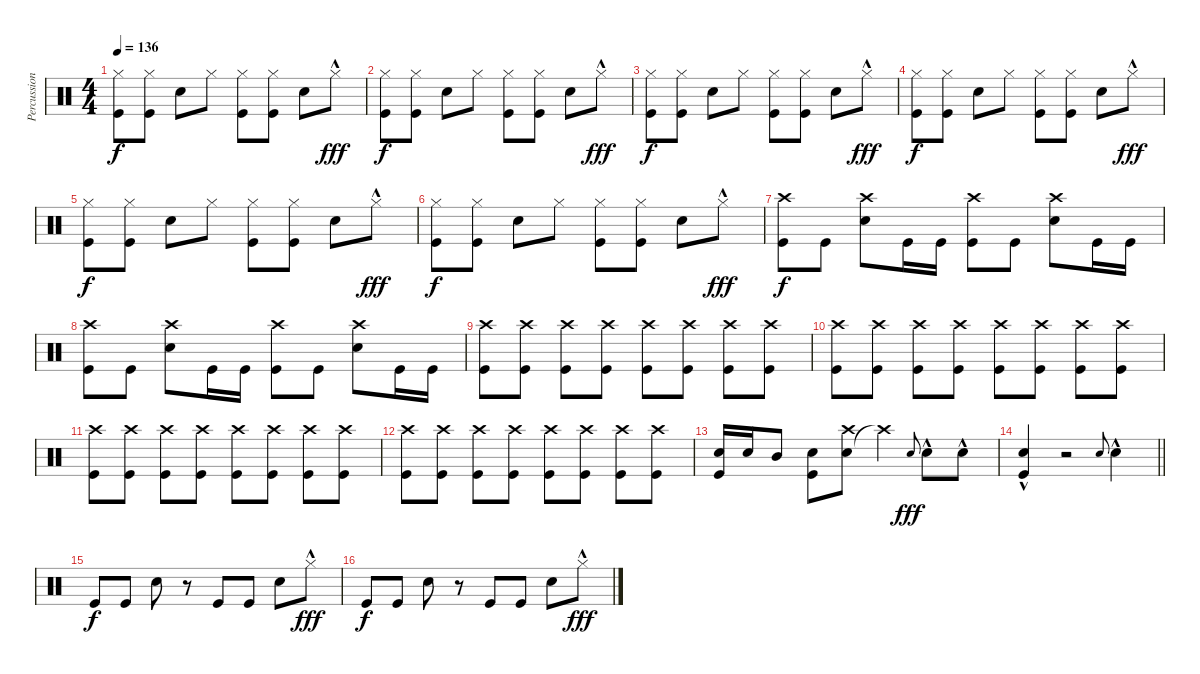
\track ("Percussions" "Percussion") {instrument percussion}
\staff {score}
\articulation defaults
\ts (4 4)
\tempo 136
\clef neutral
\ks c
("Kick (hit)" "Hi-Hat (closed)").8{dy f} ("Kick (hit)" "Hi-Hat (closed)").8 "Snare (hit) 2".8 "Hi-Hat (closed)".8 ("Kick (hit)" "Hi-Hat (closed)").8 ("Kick (hit)" "Hi-Hat (closed)").8 "Snare (hit) 2".8 "Hi-Hat (closed)"{hac}.8{dy fff} |
("Kick (hit)" "Hi-Hat (closed)").8{dy f} ("Kick (hit)" "Hi-Hat (closed)").8 "Snare (hit) 2".8 "Hi-Hat (closed)".8 ("Kick (hit)" "Hi-Hat (closed)").8 ("Kick (hit)" "Hi-Hat (closed)").8 "Snare (hit) 2".8 "Hi-Hat (closed)"{hac}.8{dy fff} |
("Kick (hit)" "Hi-Hat (closed)").8{dy f} ("Kick (hit)" "Hi-Hat (closed)").8 "Snare (hit) 2".8 "Hi-Hat (closed)".8 ("Kick (hit)" "Hi-Hat (closed)").8 ("Kick (hit)" "Hi-Hat (closed)").8 "Snare (hit) 2".8 "Hi-Hat (closed)"{hac}.8{dy fff} |
("Kick (hit)" "Hi-Hat (closed)").8{dy f} ("Kick (hit)" "Hi-Hat (closed)").8 "Snare (hit) 2".8 "Hi-Hat (closed)".8 ("Kick (hit)" "Hi-Hat (closed)").8 ("Kick (hit)" "Hi-Hat (closed)").8 "Snare (hit) 2".8 "Hi-Hat (closed)"{hac}.8{dy fff} |
("Kick (hit)" "Hi-Hat (closed)").8{dy f} ("Kick (hit)" "Hi-Hat (closed)").8 "Snare (hit) 2".8 "Hi-Hat (closed)".8 ("Kick (hit)" "Hi-Hat (closed)").8 ("Kick (hit)" "Hi-Hat (closed)").8 "Snare (hit) 2".8 "Hi-Hat (closed)"{hac}.8{dy fff} |
("Kick (hit)" "Hi-Hat (closed)").8{dy f} ("Kick (hit)" "Hi-Hat (closed)").8 "Snare (hit) 2".8 "Hi-Hat (closed)".8 ("Kick (hit)" "Hi-Hat (closed)").8 ("Kick (hit)" "Hi-Hat (closed)").8 "Snare (hit) 2".8 "Hi-Hat (closed)"{hac}.8{dy fff} |
("Crash high (hit)" "Kick (hit)").8{dy f} "Kick (hit)".8 ("Snare (hit) 2" "Crash high (hit)").8 "Kick (hit)".16 "Kick (hit)".16 ("Crash high (hit)" "Kick (hit)").8 "Kick (hit)".8 ("Snare (hit) 2" "Crash high (hit)").8 "Kick (hit)".16 "Kick (hit)".16 |
("Crash high (hit)" "Kick (hit)").8 "Kick (hit)".8 ("Snare (hit) 2" "Crash high (hit)").8 "Kick (hit)".16 "Kick (hit)".16 ("Crash high (hit)" "Kick (hit)").8 "Kick (hit)".8 ("Snare (hit) 2" "Crash high (hit)").8 "Kick (hit)".16 "Kick (hit)".16 |
("Kick (hit)" "Crash high (hit)").8 ("Kick (hit)" "Crash high (hit)").8 ("Kick (hit)" "Crash high (hit)").8 ("Kick (hit)" "Crash high (hit)").8 ("Kick (hit)" "Crash high (hit)").8 ("Kick (hit)" "Crash high (hit)").8 ("Kick (hit)" "Crash high (hit)").8 ("Kick (hit)" "Crash high (hit)").8 |
("Kick (hit)" "Crash high (hit)").8 ("Kick (hit)" "Crash high (hit)").8 ("Kick (hit)" "Crash high (hit)").8 ("Kick (hit)" "Crash high (hit)").8 ("Kick (hit)" "Crash high (hit)").8 ("Kick (hit)" "Crash high (hit)").8 ("Kick (hit)" "Crash high (hit)").8 ("Kick (hit)" "Crash high (hit)").8 |
("Kick (hit)" "Crash high (hit)").8 ("Kick (hit)" "Crash high (hit)").8 ("Kick (hit)" "Crash high (hit)").8 ("Kick (hit)" "Crash high (hit)").8 ("Kick (hit)" "Crash high (hit)").8 ("Kick (hit)" "Crash high (hit)").8 ("Kick (hit)" "Crash high (hit)").8 ("Kick (hit)" "Crash high (hit)").8 |
("Kick (hit)" "Crash high (hit)").8 ("Kick (hit)" "Crash high (hit)").8 ("Kick (hit)" "Crash high (hit)").8 ("Kick (hit)" "Crash high (hit)").8 ("Kick (hit)" "Crash high (hit)").8 ("Kick (hit)" "Crash high (hit)").8 ("Kick (hit)" "Crash high (hit)").8 ("Kick (hit)" "Crash high (hit)").8 |
("Snare (hit) 2" "Kick (hit)").16 "Snare (hit) 2".16 "Mid Tom (hit)".8 ("Snare (hit) 2" "Kick (hit)").8 ("Snare (hit) 2" "Crash high (hit)").8 "Crash high (hit)"{t}.4 "Snare (hit) 2".8{gr onbeat dy fff} "Snare (hit) 2"{hac}.8 "Snare (hit) 2"{hac}.8 |
\barLineRight lightlight
("Snare (hit) 2"{hac} "Kick (hit)").4 r.2 "Snare (hit) 2".8{gr onbeat} "Snare (hit) 2"{hac}.4 |
"Kick (hit)".8{dy f} "Kick (hit)".8 "Snare (hit) 2".8 r.8 "Kick (hit)".8 "Kick (hit)".8 "Snare (hit) 2".8 "Hi-Hat (closed)"{hac}.8{dy fff} |
"Kick (hit)".8{dy f} "Kick (hit)".8 "Snare (hit) 2".8 r.8 "Kick (hit)".8 "Kick (hit)".8 "Snare (hit) 2".8 "Hi-Hat (closed)"{hac}.8{dy fff}
